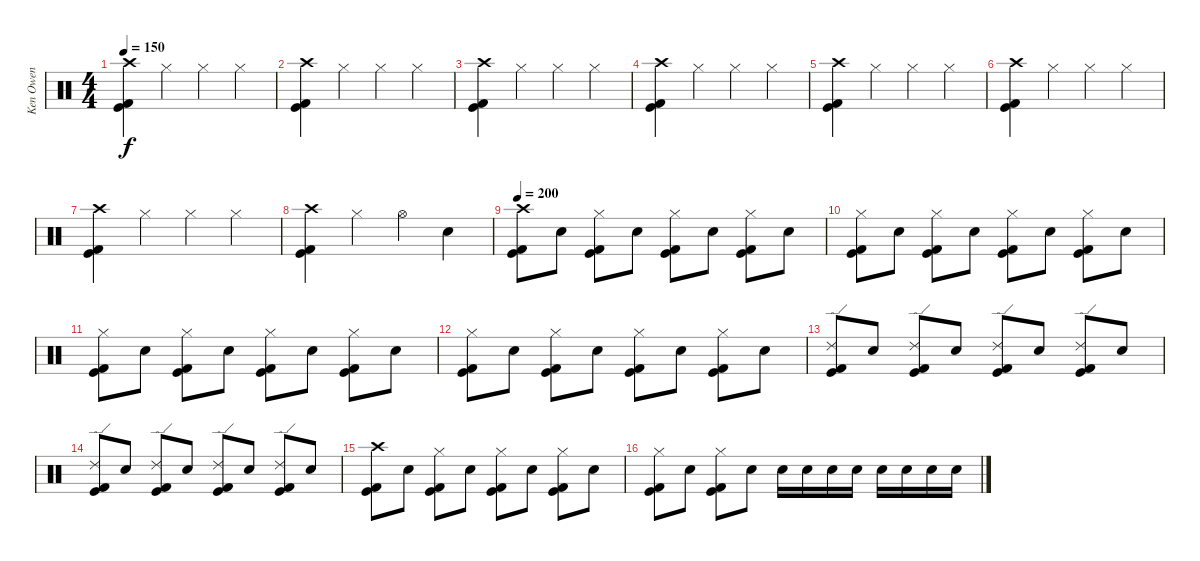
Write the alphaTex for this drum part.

\track ("Ken Owen" "Ken Owen") {instrument percussion}
\staff {score}
\articulation defaults
\ts (4 4)
\tempo 150
\clef neutral
\ks c
("Crash high (hit)" "Kick (hit)" "Kick (hit) 2").4{dy f} "Hi-Hat (closed)".4 "Hi-Hat (closed)".4 "Hi-Hat (closed)".4 |
("Crash high (hit)" "Kick (hit)" "Kick (hit) 2").4 "Hi-Hat (closed)".4 "Hi-Hat (closed)".4 "Hi-Hat (closed)".4 |
("Crash high (hit)" "Kick (hit)" "Kick (hit) 2").4 "Hi-Hat (closed)".4 "Hi-Hat (closed)".4 "Hi-Hat (closed)".4 |
("Crash high (hit)" "Kick (hit)" "Kick (hit) 2").4 "Hi-Hat (closed)".4 "Hi-Hat (closed)".4 "Hi-Hat (closed)".4 |
("Crash high (hit)" "Kick (hit)" "Kick (hit) 2").4 "Hi-Hat (closed)".4 "Hi-Hat (closed)".4 "Hi-Hat (closed)".4 |
("Crash high (hit)" "Kick (hit)" "Kick (hit) 2").4 "Hi-Hat (closed)".4 "Hi-Hat (closed)".4 "Hi-Hat (closed)".4 |
("Crash high (hit)" "Kick (hit)" "Kick (hit) 2").4 "Hi-Hat (closed)".4 "Hi-Hat (closed)".4 "Hi-Hat (closed)".4 |
("Crash high (hit)" "Kick (hit)" "Kick (hit) 2").4 "Hi-Hat (closed)".4 "Hi-Hat (open)".4 "Electric Snare (hit)".4 |
\tempo 200
("Crash high (hit)" "Kick (hit)" "Kick (hit) 2").8 "Electric Snare (hit)".8 ("Hi-Hat (closed)" "Kick (hit)" "Kick (hit) 2").8 "Electric Snare (hit)".8 ("Hi-Hat (closed)" "Kick (hit)" "Kick (hit) 2").8 "Electric Snare (hit)".8 ("Hi-Hat (closed)" "Kick (hit)" "Kick (hit) 2").8 "Electric Snare (hit)".8 |
("Hi-Hat (closed)" "Kick (hit)" "Kick (hit) 2").8 "Electric Snare (hit)".8 ("Hi-Hat (closed)" "Kick (hit)" "Kick (hit) 2").8 "Electric Snare (hit)".8 ("Hi-Hat (closed)" "Kick (hit)" "Kick (hit) 2").8 "Electric Snare (hit)".8 ("Hi-Hat (closed)" "Kick (hit)" "Kick (hit) 2").8 "Electric Snare (hit)".8 |
("Hi-Hat (closed)" "Kick (hit)" "Kick (hit) 2").8 "Electric Snare (hit)".8 ("Hi-Hat (closed)" "Kick (hit)" "Kick (hit) 2").8 "Electric Snare (hit)".8 ("Hi-Hat (closed)" "Kick (hit)" "Kick (hit) 2").8 "Electric Snare (hit)".8 ("Hi-Hat (closed)" "Kick (hit)" "Kick (hit) 2").8 "Electric Snare (hit)".8 |
("Hi-Hat (closed)" "Kick (hit)" "Kick (hit) 2").8 "Electric Snare (hit)".8 ("Hi-Hat (closed)" "Kick (hit)" "Kick (hit) 2").8 "Electric Snare (hit)".8 ("Hi-Hat (closed)" "Kick (hit)" "Kick (hit) 2").8 "Electric Snare (hit)".8 ("Hi-Hat (closed)" "Kick (hit)" "Kick (hit) 2").8 "Electric Snare (hit)".8 |
("Ride (edge) 2" "Kick (hit)" "Kick (hit) 2").8 "Electric Snare (hit)".8 ("Ride (edge) 2" "Kick (hit)" "Kick (hit) 2").8 "Electric Snare (hit)".8 ("Ride (edge) 2" "Kick (hit)" "Kick (hit) 2").8 "Electric Snare (hit)".8 ("Ride (edge) 2" "Kick (hit)" "Kick (hit) 2").8 "Electric Snare (hit)".8 |
("Ride (edge) 2" "Kick (hit)" "Kick (hit) 2").8 "Electric Snare (hit)".8 ("Ride (edge) 2" "Kick (hit)" "Kick (hit) 2").8 "Electric Snare (hit)".8 ("Ride (edge) 2" "Kick (hit)" "Kick (hit) 2").8 "Electric Snare (hit)".8 ("Ride (edge) 2" "Kick (hit)" "Kick (hit) 2").8 "Electric Snare (hit)".8 |
("Crash high (hit)" "Kick (hit)" "Kick (hit) 2").8 "Electric Snare (hit)".8 ("Hi-Hat (closed)" "Kick (hit)" "Kick (hit) 2").8 "Electric Snare (hit)".8 ("Hi-Hat (closed)" "Kick (hit)" "Kick (hit) 2").8 "Electric Snare (hit)".8 ("Hi-Hat (closed)" "Kick (hit)" "Kick (hit) 2").8 "Electric Snare (hit)".8 |
("Hi-Hat (closed)" "Kick (hit)" "Kick (hit) 2").8 "Electric Snare (hit)".8 ("Hi-Hat (closed)" "Kick (hit)" "Kick (hit) 2").8 "Electric Snare (hit)".8 "Electric Snare (hit)".16 "Electric Snare (hit)".16 "Electric Snare (hit)".16 "Electric Snare (hit)".16 "Electric Snare (hit)".16 "Electric Snare (hit)".16 "Electric Snare (hit)".16 "Electric Snare (hit)".16
